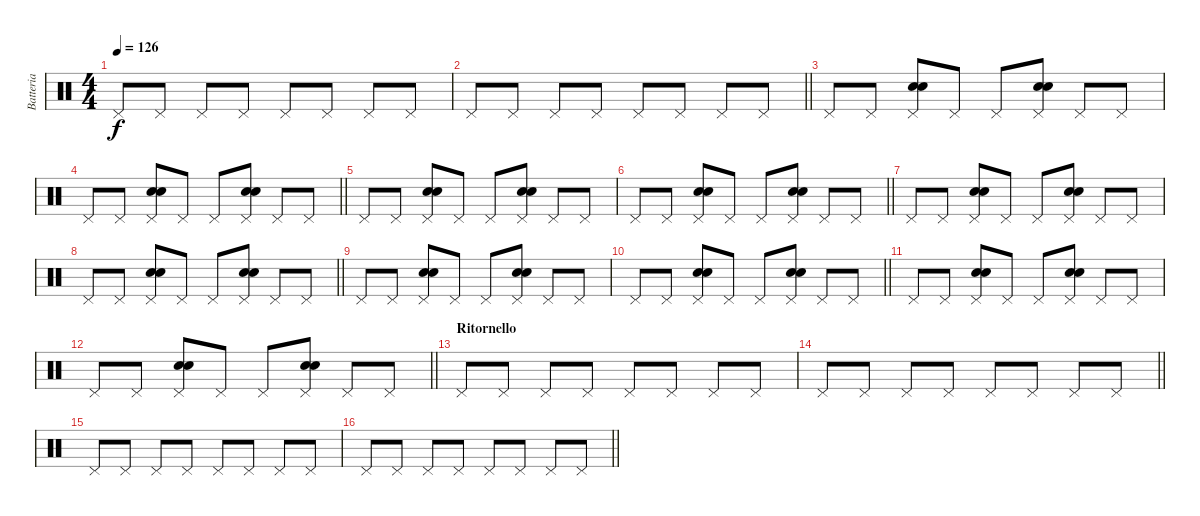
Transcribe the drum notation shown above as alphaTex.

\track ("Batteria" "Batteria") {instrument percussion}
\staff {score}
\articulation defaults
\ts (4 4)
\tempo 126
\clef neutral
\ks c "Pedal Hi-Hat (hit)".8{dy f} "Pedal Hi-Hat (hit)".8 "Pedal Hi-Hat (hit)".8 "Pedal Hi-Hat (hit)".8 "Pedal Hi-Hat (hit)".8 "Pedal Hi-Hat (hit)".8 "Pedal Hi-Hat (hit)".8 "Pedal Hi-Hat (hit)".8
|
\barLineRight lightlight "Pedal Hi-Hat (hit)".8 "Pedal Hi-Hat (hit)".8 "Pedal Hi-Hat (hit)".8 "Pedal Hi-Hat (hit)".8 "Pedal Hi-Hat (hit)".8 "Pedal Hi-Hat (hit)".8 "Pedal Hi-Hat (hit)".8 "Pedal Hi-Hat (hit)".8
|
"Pedal Hi-Hat (hit)".8 "Pedal Hi-Hat (hit)".8 ("Pedal Hi-Hat (hit)" "Snare (hit) 2" "Electric Snare (hit)").8 "Pedal Hi-Hat (hit)".8 "Pedal Hi-Hat (hit)".8 ("Pedal Hi-Hat (hit)" "Snare (hit) 2" "Electric Snare (hit)").8 "Pedal Hi-Hat (hit)".8 "Pedal Hi-Hat (hit)".8 |
\barLineRight lightlight "Pedal Hi-Hat (hit)".8 "Pedal Hi-Hat (hit)".8
("Pedal Hi-Hat (hit)" "Snare (hit) 2" "Electric Snare (hit)").8 "Pedal Hi-Hat (hit)".8 "Pedal Hi-Hat (hit)".8 ("Pedal Hi-Hat (hit)" "Snare (hit) 2" "Electric Snare (hit)").8 "Pedal Hi-Hat (hit)".8 "Pedal Hi-Hat (hit)".8 |
"Pedal Hi-Hat (hit)".8 "Pedal Hi-Hat (hit)".8 ("Pedal Hi-Hat (hit)" "Snare (hit) 2" "Electric Snare (hit)").8 "Pedal Hi-Hat (hit)".8 "Pedal Hi-Hat (hit)".8 ("Pedal Hi-Hat (hit)" "Snare (hit) 2" "Electric Snare (hit)").8 "Pedal Hi-Hat (hit)".8 "Pedal Hi-Hat (hit)".8 |
\barLineRight lightlight "Pedal Hi-Hat (hit)".8 "Pedal Hi-Hat (hit)".8
("Pedal Hi-Hat (hit)" "Snare (hit) 2" "Electric Snare (hit)").8 "Pedal Hi-Hat (hit)".8 "Pedal Hi-Hat (hit)".8 ("Pedal Hi-Hat (hit)" "Snare (hit) 2" "Electric Snare (hit)").8 "Pedal Hi-Hat (hit)".8 "Pedal Hi-Hat (hit)".8 |
"Pedal Hi-Hat (hit)".8 "Pedal Hi-Hat (hit)".8 ("Pedal Hi-Hat (hit)" "Snare (hit) 2" "Electric Snare (hit)").8 "Pedal Hi-Hat (hit)".8 "Pedal Hi-Hat (hit)".8 ("Pedal Hi-Hat (hit)" "Snare (hit) 2" "Electric Snare (hit)").8 "Pedal Hi-Hat (hit)".8 "Pedal Hi-Hat (hit)".8 |
\barLineRight lightlight "Pedal Hi-Hat (hit)".8 "Pedal Hi-Hat (hit)".8
("Pedal Hi-Hat (hit)" "Snare (hit) 2" "Electric Snare (hit)").8 "Pedal Hi-Hat (hit)".8 "Pedal Hi-Hat (hit)".8 ("Pedal Hi-Hat (hit)" "Snare (hit) 2" "Electric Snare (hit)").8 "Pedal Hi-Hat (hit)".8 "Pedal Hi-Hat (hit)".8 |
"Pedal Hi-Hat (hit)".8 "Pedal Hi-Hat (hit)".8 ("Pedal Hi-Hat (hit)" "Snare (hit) 2" "Electric Snare (hit)").8 "Pedal Hi-Hat (hit)".8 "Pedal Hi-Hat (hit)".8 ("Pedal Hi-Hat (hit)" "Snare (hit) 2" "Electric Snare (hit)").8 "Pedal Hi-Hat (hit)".8 "Pedal Hi-Hat (hit)".8 |
\barLineRight lightlight "Pedal Hi-Hat (hit)".8 "Pedal Hi-Hat (hit)".8
("Pedal Hi-Hat (hit)" "Snare (hit) 2" "Electric Snare (hit)").8 "Pedal Hi-Hat (hit)".8 "Pedal Hi-Hat (hit)".8 ("Pedal Hi-Hat (hit)" "Snare (hit) 2" "Electric Snare (hit)").8 "Pedal Hi-Hat (hit)".8 "Pedal Hi-Hat (hit)".8 |
"Pedal Hi-Hat (hit)".8 "Pedal Hi-Hat (hit)".8 ("Pedal Hi-Hat (hit)" "Snare (hit) 2" "Electric Snare (hit)").8 "Pedal Hi-Hat (hit)".8 "Pedal Hi-Hat (hit)".8 ("Pedal Hi-Hat (hit)" "Snare (hit) 2" "Electric Snare (hit)").8 "Pedal Hi-Hat (hit)".8 "Pedal Hi-Hat (hit)".8 |
\barLineRight lightlight "Pedal Hi-Hat (hit)".8 "Pedal Hi-Hat (hit)".8
("Pedal Hi-Hat (hit)" "Snare (hit) 2" "Electric Snare (hit)").8 "Pedal Hi-Hat (hit)".8 "Pedal Hi-Hat (hit)".8 ("Pedal Hi-Hat (hit)" "Snare (hit) 2" "Electric Snare (hit)").8 "Pedal Hi-Hat (hit)".8 "Pedal Hi-Hat (hit)".8 |
\section ("" "Ritornello")
"Pedal Hi-Hat (hit)".8 "Pedal Hi-Hat (hit)".8 "Pedal Hi-Hat (hit)".8 "Pedal Hi-Hat (hit)".8 "Pedal Hi-Hat (hit)".8 "Pedal Hi-Hat (hit)".8 "Pedal Hi-Hat (hit)".8 "Pedal Hi-Hat (hit)".8 |
\barLineRight lightlight "Pedal Hi-Hat (hit)".8 "Pedal Hi-Hat (hit)".8 "Pedal Hi-Hat (hit)".8 "Pedal Hi-Hat (hit)".8 "Pedal Hi-Hat (hit)".8 "Pedal Hi-Hat (hit)".8 "Pedal Hi-Hat (hit)".8 "Pedal Hi-Hat (hit)".8
|
"Pedal Hi-Hat (hit)".8 "Pedal Hi-Hat (hit)".8 "Pedal Hi-Hat (hit)".8 "Pedal Hi-Hat (hit)".8 "Pedal Hi-Hat (hit)".8 "Pedal Hi-Hat (hit)".8 "Pedal Hi-Hat (hit)".8 "Pedal Hi-Hat (hit)".8 |
\barLineRight lightlight "Pedal Hi-Hat (hit)".8 "Pedal Hi-Hat (hit)".8 "Pedal Hi-Hat (hit)".8 "Pedal Hi-Hat (hit)".8 "Pedal Hi-Hat (hit)".8 "Pedal Hi-Hat (hit)".8 "Pedal Hi-Hat (hit)".8 "Pedal Hi-Hat (hit)".8
